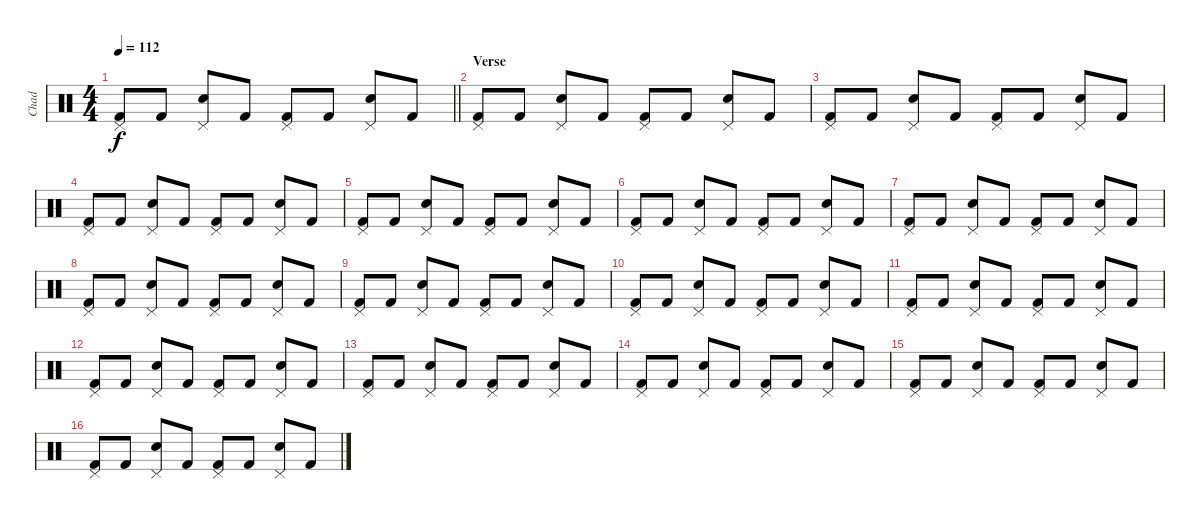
\track ("Chad" "Chad") {instrument percussion}
\staff {score}
\articulation defaults
\ts (4 4)
\tempo 112
\clef neutral
\barLineRight lightlight
\ks c
("Kick (hit) 2" "Pedal Hi-Hat (hit)").8{dy f} "Kick (hit) 2".8 ("Snare (hit) 2" "Pedal Hi-Hat (hit)").8 "Kick (hit) 2".8 ("Kick (hit) 2" "Pedal Hi-Hat (hit)").8 "Kick (hit) 2".8 ("Snare (hit) 2" "Pedal Hi-Hat (hit)").8 "Kick (hit) 2".8 |
\section ("" "Verse")
("Kick (hit) 2" "Pedal Hi-Hat (hit)").8 "Kick (hit) 2".8 ("Snare (hit) 2" "Pedal Hi-Hat (hit)").8 "Kick (hit) 2".8 ("Kick (hit) 2" "Pedal Hi-Hat (hit)").8 "Kick (hit) 2".8 ("Snare (hit) 2" "Pedal Hi-Hat (hit)").8 "Kick (hit) 2".8 |
("Kick (hit) 2" "Pedal Hi-Hat (hit)").8 "Kick (hit) 2".8 ("Snare (hit) 2" "Pedal Hi-Hat (hit)").8 "Kick (hit) 2".8 ("Kick (hit) 2" "Pedal Hi-Hat (hit)").8 "Kick (hit) 2".8 ("Snare (hit) 2" "Pedal Hi-Hat (hit)").8 "Kick (hit) 2".8 |
("Kick (hit) 2" "Pedal Hi-Hat (hit)").8 "Kick (hit) 2".8 ("Snare (hit) 2" "Pedal Hi-Hat (hit)").8 "Kick (hit) 2".8 ("Kick (hit) 2" "Pedal Hi-Hat (hit)").8 "Kick (hit) 2".8 ("Snare (hit) 2" "Pedal Hi-Hat (hit)").8 "Kick (hit) 2".8 |
("Kick (hit) 2" "Pedal Hi-Hat (hit)").8 "Kick (hit) 2".8 ("Snare (hit) 2" "Pedal Hi-Hat (hit)").8 "Kick (hit) 2".8 ("Kick (hit) 2" "Pedal Hi-Hat (hit)").8 "Kick (hit) 2".8 ("Snare (hit) 2" "Pedal Hi-Hat (hit)").8 "Kick (hit) 2".8 |
("Kick (hit) 2" "Pedal Hi-Hat (hit)").8 "Kick (hit) 2".8 ("Snare (hit) 2" "Pedal Hi-Hat (hit)").8 "Kick (hit) 2".8 ("Kick (hit) 2" "Pedal Hi-Hat (hit)").8 "Kick (hit) 2".8 ("Snare (hit) 2" "Pedal Hi-Hat (hit)").8 "Kick (hit) 2".8 |
("Kick (hit) 2" "Pedal Hi-Hat (hit)").8 "Kick (hit) 2".8 ("Snare (hit) 2" "Pedal Hi-Hat (hit)").8 "Kick (hit) 2".8 ("Kick (hit) 2" "Pedal Hi-Hat (hit)").8 "Kick (hit) 2".8 ("Snare (hit) 2" "Pedal Hi-Hat (hit)").8 "Kick (hit) 2".8 |
("Kick (hit) 2" "Pedal Hi-Hat (hit)").8 "Kick (hit) 2".8 ("Snare (hit) 2" "Pedal Hi-Hat (hit)").8 "Kick (hit) 2".8 ("Kick (hit) 2" "Pedal Hi-Hat (hit)").8 "Kick (hit) 2".8 ("Snare (hit) 2" "Pedal Hi-Hat (hit)").8 "Kick (hit) 2".8 |
("Kick (hit) 2" "Pedal Hi-Hat (hit)").8 "Kick (hit) 2".8 ("Snare (hit) 2" "Pedal Hi-Hat (hit)").8 "Kick (hit) 2".8 ("Kick (hit) 2" "Pedal Hi-Hat (hit)").8 "Kick (hit) 2".8 ("Snare (hit) 2" "Pedal Hi-Hat (hit)").8 "Kick (hit) 2".8 |
("Kick (hit) 2" "Pedal Hi-Hat (hit)").8 "Kick (hit) 2".8 ("Snare (hit) 2" "Pedal Hi-Hat (hit)").8 "Kick (hit) 2".8 ("Kick (hit) 2" "Pedal Hi-Hat (hit)").8 "Kick (hit) 2".8 ("Snare (hit) 2" "Pedal Hi-Hat (hit)").8 "Kick (hit) 2".8 |
("Kick (hit) 2" "Pedal Hi-Hat (hit)").8 "Kick (hit) 2".8 ("Snare (hit) 2" "Pedal Hi-Hat (hit)").8 "Kick (hit) 2".8 ("Kick (hit) 2" "Pedal Hi-Hat (hit)").8 "Kick (hit) 2".8 ("Snare (hit) 2" "Pedal Hi-Hat (hit)").8 "Kick (hit) 2".8 |
("Kick (hit) 2" "Pedal Hi-Hat (hit)").8 "Kick (hit) 2".8 ("Snare (hit) 2" "Pedal Hi-Hat (hit)").8 "Kick (hit) 2".8 ("Kick (hit) 2" "Pedal Hi-Hat (hit)").8 "Kick (hit) 2".8 ("Snare (hit) 2" "Pedal Hi-Hat (hit)").8 "Kick (hit) 2".8 |
("Kick (hit) 2" "Pedal Hi-Hat (hit)").8 "Kick (hit) 2".8 ("Snare (hit) 2" "Pedal Hi-Hat (hit)").8 "Kick (hit) 2".8 ("Kick (hit) 2" "Pedal Hi-Hat (hit)").8 "Kick (hit) 2".8 ("Snare (hit) 2" "Pedal Hi-Hat (hit)").8 "Kick (hit) 2".8 |
("Kick (hit) 2" "Pedal Hi-Hat (hit)").8 "Kick (hit) 2".8 ("Snare (hit) 2" "Pedal Hi-Hat (hit)").8 "Kick (hit) 2".8 ("Kick (hit) 2" "Pedal Hi-Hat (hit)").8 "Kick (hit) 2".8 ("Snare (hit) 2" "Pedal Hi-Hat (hit)").8 "Kick (hit) 2".8 |
("Kick (hit) 2" "Pedal Hi-Hat (hit)").8 "Kick (hit) 2".8 ("Snare (hit) 2" "Pedal Hi-Hat (hit)").8 "Kick (hit) 2".8 ("Kick (hit) 2" "Pedal Hi-Hat (hit)").8 "Kick (hit) 2".8 ("Snare (hit) 2" "Pedal Hi-Hat (hit)").8 "Kick (hit) 2".8 |
("Kick (hit) 2" "Pedal Hi-Hat (hit)").8 "Kick (hit) 2".8 ("Snare (hit) 2" "Pedal Hi-Hat (hit)").8 "Kick (hit) 2".8 ("Kick (hit) 2" "Pedal Hi-Hat (hit)").8 "Kick (hit) 2".8 ("Snare (hit) 2" "Pedal Hi-Hat (hit)").8 "Kick (hit) 2".8
